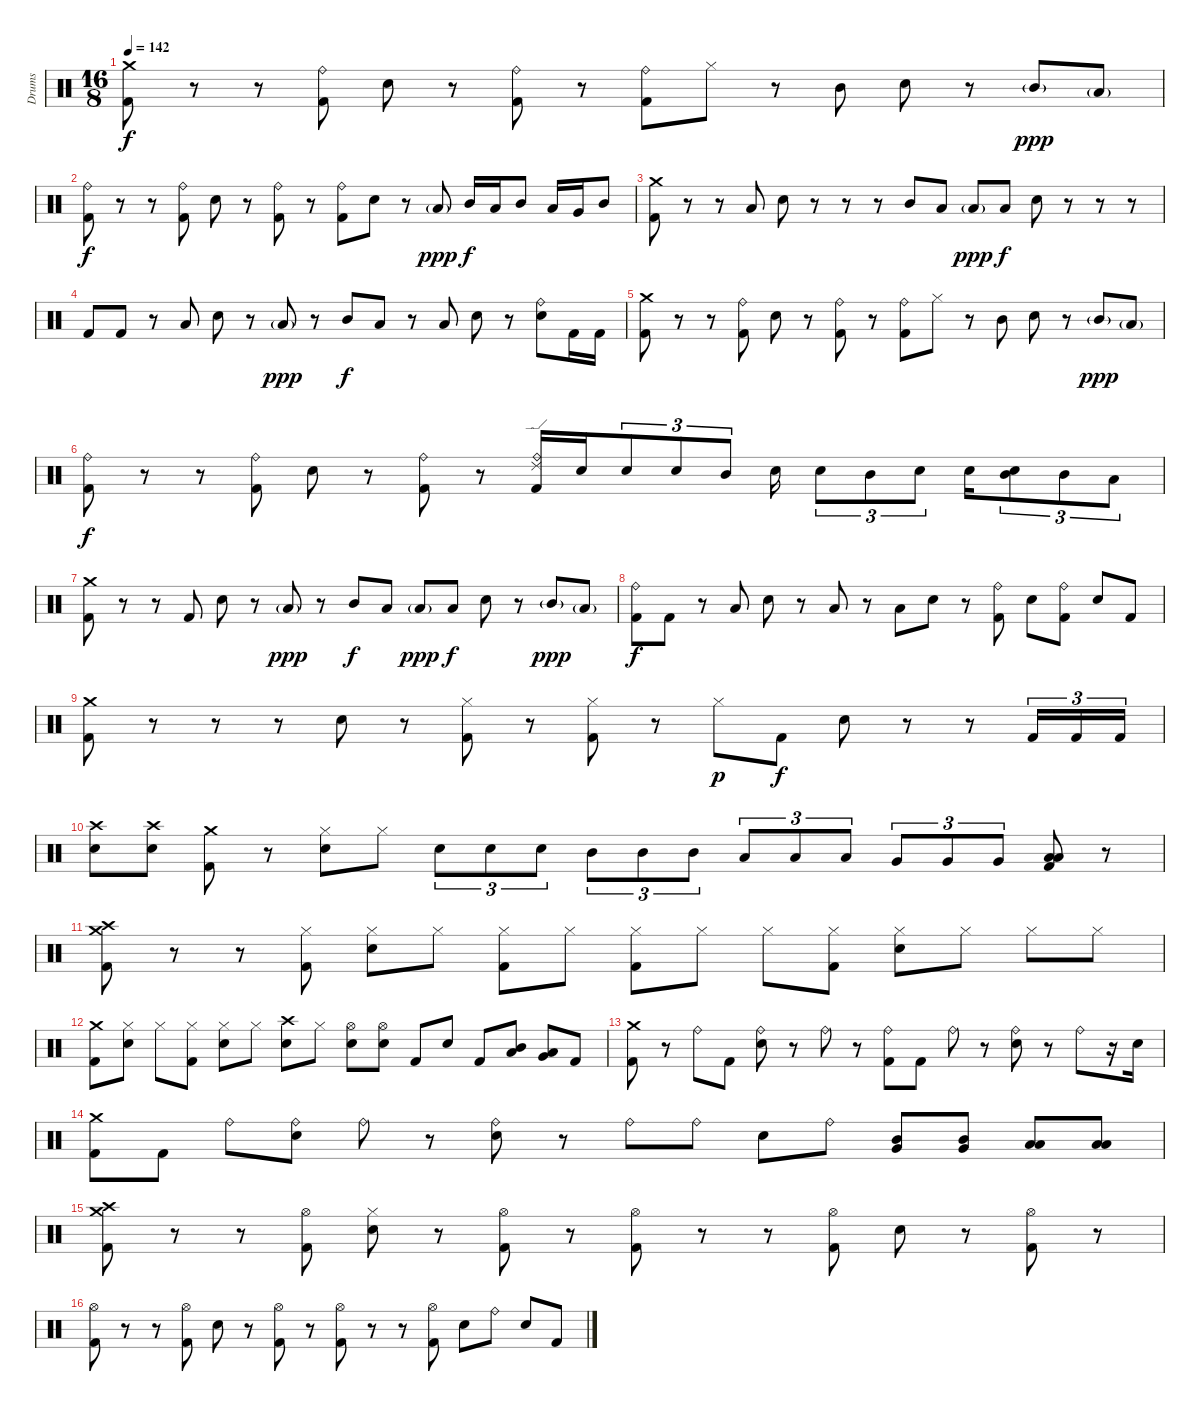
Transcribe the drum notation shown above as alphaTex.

\track ("Drums" "Drums") {instrument percussion}
\staff {score}
\articulation defaults
\ts (16 8)
\tempo 142
\clef neutral
\ks c
("Crash medium (hit)" "Kick (hit) 2").8{dy f} r.8 r.8 ("Ride (bell)" "Kick (hit) 2").8 "Electric Snare (hit)".8 r.8 ("Ride (bell)" "Kick (hit) 2").8 r.8 ("Ride (bell)" "Kick (hit) 2").8 "Hi-Hat (closed)".8 r.8 "Mid Tom (hit)".8 "Electric Snare (hit)".8 r.8 "Mid Tom (hit)"{g}.8{dy ppp} "Low Tom (hit)"{g}.8 |
("Ride (bell)" "Kick (hit) 2").8{dy f} r.8 r.8 ("Ride (bell)" "Kick (hit) 2").8 "Electric Snare (hit)".8 r.8 ("Ride (bell)" "Kick (hit) 2").8 r.8 ("Ride (bell)" "Kick (hit) 2").8 "Electric Snare (hit)".8 r.8 "Low Tom (hit)"{g}.8{dy ppp} "Mid Tom (hit)".16{dy f} "Low Tom (hit)".16 "Mid Tom (hit)".8 "Low Tom (hit)".16 "Very Low Tom (hit)".16 "Mid Tom (hit)".8 |
("Crash medium (hit)" "Kick (hit) 2").8 r.8 r.8 "Low Tom (hit)".8 "Electric Snare (hit)".8 r.8 r.8 r.8 "Mid Tom (hit)".8 "Low Tom (hit)".8 "Low Tom (hit)"{g}.8{dy ppp} "Low Tom (hit)".8{dy f} "Electric Snare (hit)".8 r.8 r.8 r.8 |
"Kick (hit) 2".8 "Kick (hit) 2".8 r.8 "Low Tom (hit)".8 "Electric Snare (hit)".8 r.8 "Low Tom (hit)"{g}.8{dy ppp} r.8 "Mid Tom (hit)".8{dy f} "Low Tom (hit)".8 r.8 "Low Tom (hit)".8 "Electric Snare (hit)".8 r.8 ("Ride (bell)" "Electric Snare (hit)").8 "Kick (hit) 2".16 "Kick (hit) 2".16 |
("Crash medium (hit)" "Kick (hit) 2").8 r.8 r.8 ("Ride (bell)" "Kick (hit) 2").8 "Electric Snare (hit)".8 r.8 ("Ride (bell)" "Kick (hit) 2").8 r.8 ("Ride (bell)" "Kick (hit) 2").8 "Hi-Hat (closed)".8 r.8 "Mid Tom (hit)".8 "Electric Snare (hit)".8 r.8 "Mid Tom (hit)"{g}.8{dy ppp} "Low Tom (hit)"{g}.8 |
("Ride (bell)" "Kick (hit) 2").8{dy f} r.8 r.8 ("Ride (bell)" "Kick (hit) 2").8 "Electric Snare (hit)".8 r.8 ("Ride (bell)" "Kick (hit) 2").8 r.8 ("Ride (bell)" "Ride (edge) 2" "Kick (hit) 2").16 "Electric Snare (hit)".16{beam merge} "Electric Snare (hit)".8{tu (3 2)} "Electric Snare (hit)".8{tu (3 2) beam merge} "Mid Tom (hit)".8{tu (3 2)} "Electric Snare (hit)".16 "Electric Snare (hit)".8{tu (3 2) beam merge} "Mid Tom (hit)".8{tu (3 2) beam merge} "Electric Snare (hit)".8{tu (3 2)} "Electric Snare (hit)".16{beam merge} ("Electric Snare (hit)" "Mid Tom (hit)").8{tu (3 2)} "Mid Tom (hit)".8{tu (3 2) beam merge} "Low Tom (hit)".8{tu (3 2)} |
("Crash medium (hit)" "Kick (hit) 2").8 r.8 r.8 "Kick (hit) 2".8 "Electric Snare (hit)".8 r.8 "Low Tom (hit)"{g}.8{dy ppp} r.8 "Mid Tom (hit)".8{dy f} "Low Tom (hit)".8 "Low Tom (hit)"{g}.8{dy ppp} "Low Tom (hit)".8{dy f} "Electric Snare (hit)".8 r.8 "Mid Tom (hit)"{g}.8{dy ppp} "Low Tom (hit)"{g}.8 |
("Ride (bell)" "Kick (hit) 2").8{dy f} "Kick (hit) 2".8 r.8 "Low Tom (hit)".8 "Electric Snare (hit)".8 r.8 "Low Tom (hit)".8 r.8 "Low Tom (hit)".8 "Electric Snare (hit)".8 r.8 ("Ride (bell)" "Kick (hit) 2").8 "Electric Snare (hit)".8 ("Ride (bell)" "Kick (hit) 2").8 "Electric Snare (hit)".8 "Kick (hit) 2".8 |
("Crash medium (hit)" "Kick (hit) 2").8 r.8 r.8 r.8 "Electric Snare (hit)".8 r.8 ("Hi-Hat (closed)" "Kick (hit) 2").8 r.8 ("Hi-Hat (closed)" "Kick (hit) 2").8 r.8 "Hi-Hat (closed)".8{dy p} "Kick (hit) 2".8{dy f} "Electric Snare (hit)".8 r.8 r.8 "Kick (hit) 2".16{tu (3 2)} "Kick (hit) 2".16{tu (3 2)} "Kick (hit) 2".16{tu (3 2)} |
("Crash high (hit)" "Electric Snare (hit)").8 ("Crash high (hit)" "Electric Snare (hit)").8 ("Crash medium (hit)" "Kick (hit) 2").8 r.8 ("Hi-Hat (closed)" "Electric Snare (hit)").8 "Hi-Hat (closed)".8 "Electric Snare (hit)".8{tu (3 2)} "Electric Snare (hit)".8{tu (3 2)} "Electric Snare (hit)".8{tu (3 2)} "Mid Tom (hit)".8{tu (3 2)} "Mid Tom (hit)".8{tu (3 2)} "Mid Tom (hit)".8{tu (3 2)} "Low Tom (hit)".8{tu (3 2)} "Low Tom (hit)".8{tu (3 2)} "Low Tom (hit)".8{tu (3 2)} "Very Low Tom (hit)".8{tu (3 2)} "Very Low Tom (hit)".8{tu (3 2)} "Very Low Tom (hit)".8{tu (3 2)} ("Low Tom (hit)" "Low Floor Tom (hit)" "Kick (hit) 2").8 r.8 |
("Crash medium (hit)" "Crash high (hit)" "Kick (hit) 2").8 r.8 r.8 ("Hi-Hat (closed)" "Kick (hit) 2").8 ("Hi-Hat (closed)" "Electric Snare (hit)").8 "Hi-Hat (closed)".8 ("Hi-Hat (closed)" "Kick (hit) 2").8 "Hi-Hat (closed)".8 ("Hi-Hat (closed)" "Kick (hit) 2").8 "Hi-Hat (closed)".8 "Hi-Hat (closed)".8 ("Hi-Hat (closed)" "Kick (hit) 2").8 ("Hi-Hat (closed)" "Electric Snare (hit)").8 "Hi-Hat (closed)".8 "Hi-Hat (closed)".8 "Hi-Hat (closed)".8 |
("Crash medium (hit)" "Kick (hit) 2").8 ("Hi-Hat (closed)" "Electric Snare (hit)").8 "Hi-Hat (closed)".8 ("Hi-Hat (closed)" "Kick (hit) 2").8 ("Hi-Hat (closed)" "Electric Snare (hit)").8 "Hi-Hat (closed)".8 ("Crash high (hit)" "Electric Snare (hit)").8 "Hi-Hat (closed)".8 ("Hi-Hat (open)" "Electric Snare (hit)").8 ("Hi-Hat (open)" "Electric Snare (hit)").8 "Kick (hit) 2".8 "Electric Snare (hit)".8 "Kick (hit) 2".8 ("Mid Tom (hit)" "Low Tom (hit)").8 ("Low Tom (hit)" "Very Low Tom (hit)").8 "Kick (hit) 2".8 |
("Crash medium (hit)" "Kick (hit) 2").8 r.8 "Ride (bell)".8 "Kick (hit) 2".8 ("Ride (bell)" "Electric Snare (hit)").8 r.8 "Ride (bell)".8 r.8 ("Ride (bell)" "Kick (hit) 2").8 "Kick (hit) 2".8 "Ride (bell)".8 r.8 ("Ride (bell)" "Electric Snare (hit)").8 r.8 "Ride (bell)".8 r.16 "Electric Snare (hit)".16 |
("Crash medium (hit)" "Kick (hit) 2").8 "Kick (hit) 2".8 "Ride (bell)".8 ("Ride (bell)" "Electric Snare (hit)").8 "Ride (bell)".8 r.8 ("Ride (bell)" "Electric Snare (hit)").8 r.8 "Ride (bell)".8 "Ride (bell)".8 "Electric Snare (hit)".8 "Ride (bell)".8 ("Mid Tom (hit)" "Very Low Tom (hit)").8 ("Mid Tom (hit)" "Very Low Tom (hit)").8 ("Low Tom (hit)" "Low Floor Tom (hit)").8 ("Low Tom (hit)" "Low Floor Tom (hit)").8 |
("Crash medium (hit)" "Crash high (hit)" "Kick (hit) 2").8 r.8 r.8 ("Hi-Hat (open)" "Kick (hit) 2").8 ("Hi-Hat (closed)" "Electric Snare (hit)").8 r.8 ("Hi-Hat (open)" "Kick (hit) 2").8 r.8 ("Hi-Hat (open)" "Kick (hit) 2").8 r.8 r.8 ("Hi-Hat (open)" "Kick (hit) 2").8 "Electric Snare (hit)".8 r.8 ("Hi-Hat (open)" "Kick (hit) 2").8 r.8 |
("Hi-Hat (open)" "Kick (hit) 2").8 r.8 r.8 ("Hi-Hat (open)" "Kick (hit) 2").8 "Electric Snare (hit)".8 r.8 ("Hi-Hat (open)" "Kick (hit) 2").8 r.8 ("Hi-Hat (open)" "Kick (hit) 2").8 r.8 r.8 ("Hi-Hat (open)" "Kick (hit) 2").8 "Electric Snare (hit)".8 "Ride (bell)".8 "Electric Snare (hit)".8 "Kick (hit) 2".8
